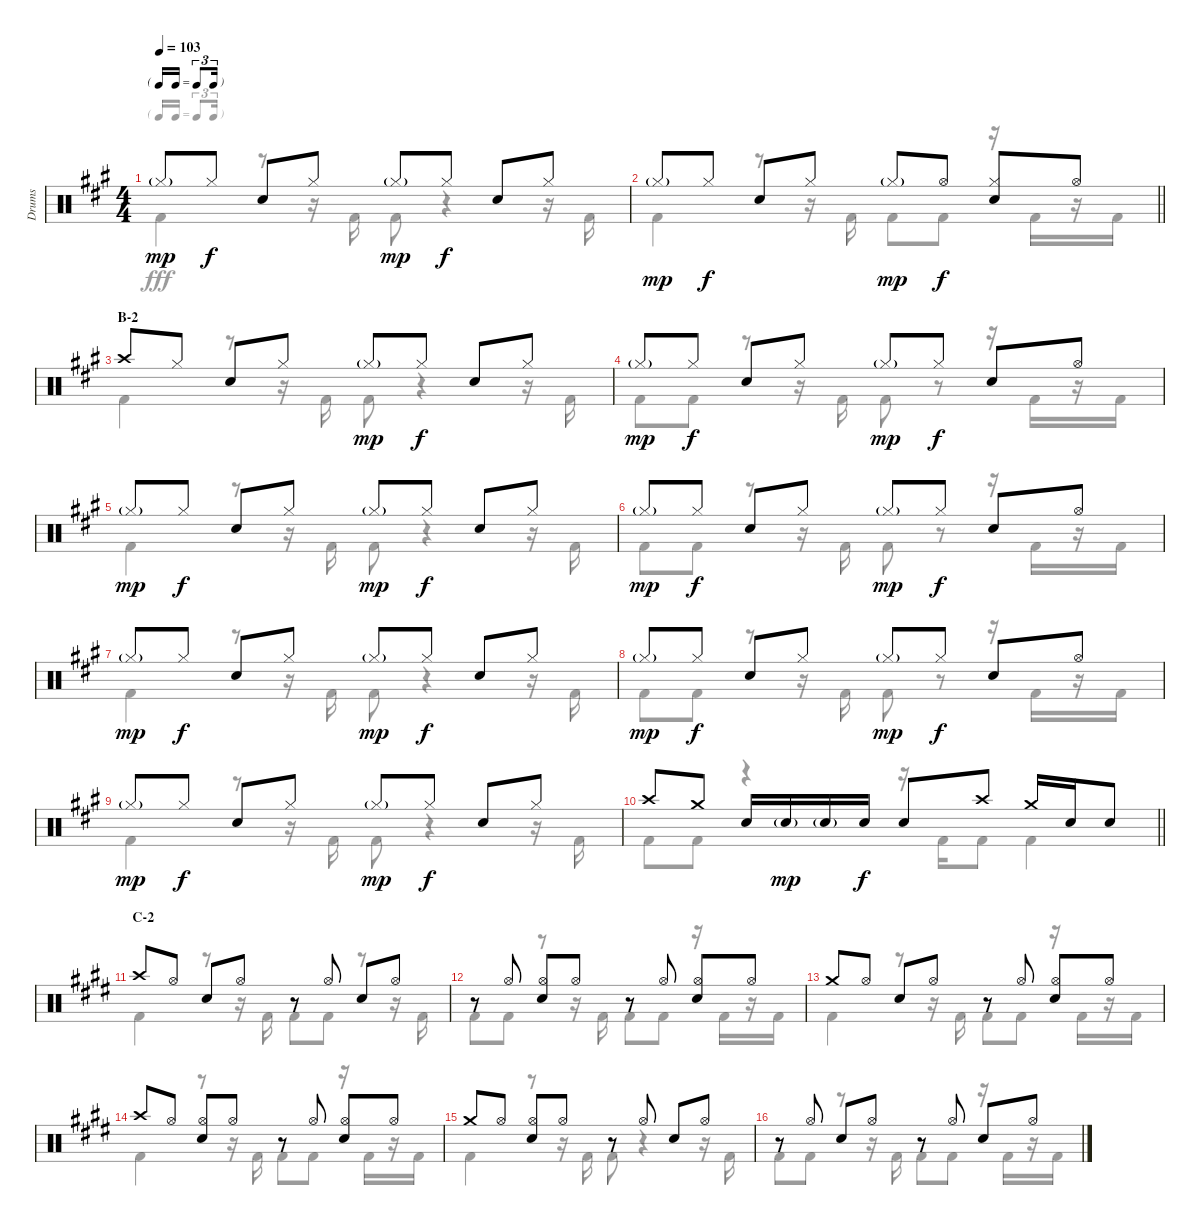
\track ("Drums" "Drums") {instrument percussion}
\staff {score}
\articulation defaults
\voice
\ts (4 4)
\tf triplet16th
\tempo 103
\clef neutral
\ks a "Hi-Hat (closed)"{g}.8{dy mp} "Hi-Hat (closed)".8{dy f} "Snare (hit) 2".8 "Hi-Hat (closed)".8 "Hi-Hat (closed)"{g}.8{dy mp} "Hi-Hat (closed)".8{dy f} "Snare (hit) 2".8 "Hi-Hat (closed)".8
|
\barLineRight lightlight "Hi-Hat (closed)"{g}.8{dy mp} "Hi-Hat (closed)".8{dy f} "Snare (hit) 2".8 "Hi-Hat (closed)".8 "Hi-Hat (closed)"{g}.8{dy mp} "Hi-Hat (open)".8{dy f}
("Hi-Hat (closed)" "Snare (hit) 2").8 "Hi-Hat (open)".8 |
\section ("" "B-2")
"Crash high (hit)".8 "Hi-Hat (closed)".8 "Snare (hit) 2".8 "Hi-Hat (closed)".8 "Hi-Hat (closed)"{g}.8{dy mp} "Hi-Hat (closed)".8{dy f} "Snare (hit) 2".8 "Hi-Hat (closed)".8 |
"Hi-Hat (closed)"{g}.8{dy mp} "Hi-Hat (closed)".8{dy f} "Snare (hit) 2".8 "Hi-Hat (closed)".8 "Hi-Hat (closed)"{g}.8{dy mp} "Hi-Hat (closed)".8{dy f} "Snare (hit) 2".8 "Hi-Hat (open)".8 |
"Hi-Hat (closed)"{g}.8{dy mp} "Hi-Hat (closed)".8{dy f} "Snare (hit) 2".8 "Hi-Hat (closed)".8 "Hi-Hat (closed)"{g}.8{dy mp} "Hi-Hat (closed)".8{dy f} "Snare (hit) 2".8 "Hi-Hat (closed)".8 |
"Hi-Hat (closed)"{g}.8{dy mp} "Hi-Hat (closed)".8{dy f} "Snare (hit) 2".8 "Hi-Hat (closed)".8 "Hi-Hat (closed)"{g}.8{dy mp} "Hi-Hat (closed)".8{dy f} "Snare (hit) 2".8 "Hi-Hat (open)".8 |
"Hi-Hat (closed)"{g}.8{dy mp} "Hi-Hat (closed)".8{dy f} "Snare (hit) 2".8 "Hi-Hat (closed)".8 "Hi-Hat (closed)"{g}.8{dy mp} "Hi-Hat (closed)".8{dy f} "Snare (hit) 2".8 "Hi-Hat (closed)".8 |
"Hi-Hat (closed)"{g}.8{dy mp} "Hi-Hat (closed)".8{dy f} "Snare (hit) 2".8 "Hi-Hat (closed)".8 "Hi-Hat (closed)"{g}.8{dy mp} "Hi-Hat (closed)".8{dy f} "Snare (hit) 2".8 "Hi-Hat (open)".8 |
"Hi-Hat (closed)"{g}.8{dy mp} "Hi-Hat (closed)".8{dy f} "Snare (hit) 2".8 "Hi-Hat (closed)".8 "Hi-Hat (closed)"{g}.8{dy mp} "Hi-Hat (closed)".8{dy f} "Snare (hit) 2".8 "Hi-Hat (closed)".8 |
\barLineRight lightlight "Crash high (hit)".8 "Crash medium (hit)".8 "Snare (hit) 2".16 "Snare (hit) 2"{g}.16{dy mp} "Snare (hit) 2"{g}.16 "Snare (hit) 2".16{dy f} "Snare (hit) 2".8 "Crash high (hit)".8 "Crash medium (hit)".16 "Snare (hit) 2".16 "Snare (hit) 2".8
|
\section ("" "C-2")
\ks e "Crash high (hit)".8 "Hi-Hat (open)".8 "Snare (hit) 2".8 "Hi-Hat (open)".8
r.8 "Hi-Hat (open)".8 "Snare (hit) 2".8 "Hi-Hat (open)".8 |
r.8 "Hi-Hat (open)".8 ("Hi-Hat (open)" "Snare (hit) 2").8 "Hi-Hat (open)".8 r.8 "Hi-Hat (open)".8 ("Hi-Hat (open)" "Snare (hit) 2").8 "Hi-Hat (open)".8 |
"Crash medium (hit)".8 "Hi-Hat (open)".8 "Snare (hit) 2".8 "Hi-Hat (open)".8 r.8 "Hi-Hat (open)".8 ("Hi-Hat (open)" "Snare (hit) 2").8 "Hi-Hat (open)".8 |
"Crash high (hit)".8 "Hi-Hat (open)".8 ("Hi-Hat (open)" "Snare (hit) 2").8 "Hi-Hat (open)".8 r.8 "Hi-Hat (open)".8 ("Hi-Hat (open)" "Snare (hit) 2").8 "Hi-Hat (open)".8 |
"Crash medium (hit)".8 "Hi-Hat (open)".8 ("Hi-Hat (open)" "Snare (hit) 2").8 "Hi-Hat (open)".8 r.8 "Hi-Hat (open)".8 "Snare (hit) 2".8 "Hi-Hat (open)".8 |
r.8 "Hi-Hat (open)".8 "Snare (hit) 2".8 "Hi-Hat (open)".8 r.8 "Hi-Hat (open)".8 "Snare (hit) 2".8 "Hi-Hat (open)".8
\voice
\clef neutral
\ottava regular
\simile none
\ks a "Kick (hit) 2".4{dy fff}
r.8 r.16 "Kick (hit) 2".16 "Kick (hit) 2".8 r.4 r.16 "Kick (hit) 2".16 |
\barLineRight lightlight "Kick (hit) 2".4
r.8 r.16 "Kick (hit) 2".16 "Kick (hit) 2".8 "Kick (hit) 2".8 r.16 "Kick (hit) 2".16 r.16 "Kick (hit) 2".16 |
"Kick (hit) 2".4 r.8 r.16 "Kick (hit) 2".16 "Kick (hit) 2".8 r.4 r.16 "Kick (hit) 2".16 |
"Kick (hit) 2".8 "Kick (hit) 2".8 r.8 r.16 "Kick (hit) 2".16 "Kick (hit) 2".8 r.8 r.16 "Kick (hit) 2".16 r.16 "Kick (hit) 2".16 |
"Kick (hit) 2".4 r.8 r.16 "Kick (hit) 2".16 "Kick (hit) 2".8 r.4 r.16 "Kick (hit) 2".16 |
"Kick (hit) 2".8 "Kick (hit) 2".8 r.8 r.16 "Kick (hit) 2".16 "Kick (hit) 2".8 r.8 r.16 "Kick (hit) 2".16 r.16 "Kick (hit) 2".16 |
"Kick (hit) 2".4 r.8 r.16 "Kick (hit) 2".16 "Kick (hit) 2".8 r.4 r.16 "Kick (hit) 2".16 |
"Kick (hit) 2".8 "Kick (hit) 2".8 r.8 r.16 "Kick (hit) 2".16 "Kick (hit) 2".8 r.8 r.16 "Kick (hit) 2".16 r.16 "Kick (hit) 2".16 |
"Kick (hit) 2".4 r.8 r.16 "Kick (hit) 2".16 "Kick (hit) 2".8 r.4 r.16 "Kick (hit) 2".16 |
\barLineRight lightlight "Kick (hit) 2".8 "Kick (hit) 2".8
r.4 r.16 "Kick (hit) 2".16 "Kick (hit) 2".8 "Kick (hit) 2".4 |
\ks e "Kick (hit) 2".4
r.8 r.16 "Kick (hit) 2".16 "Kick (hit) 2".8 "Kick (hit) 2".8 r.8 r.16 "Kick (hit) 2".16 |
"Kick (hit) 2".8 "Kick (hit) 2".8 r.8 r.16 "Kick (hit) 2".16 "Kick (hit) 2".8 "Kick (hit) 2".8 r.16 "Kick (hit) 2".16 r.16 "Kick (hit) 2".16 |
"Kick (hit) 2".4 r.8 r.16 "Kick (hit) 2".16 "Kick (hit) 2".8 "Kick (hit) 2".8 r.16 "Kick (hit) 2".16 r.16 "Kick (hit) 2".16 |
"Kick (hit) 2".4 r.8 r.16 "Kick (hit) 2".16 "Kick (hit) 2".8 "Kick (hit) 2".8 r.16 "Kick (hit) 2".16 r.16 "Kick (hit) 2".16 |
"Kick (hit) 2".4 r.8 r.16 "Kick (hit) 2".16 "Kick (hit) 2".8 r.4 r.16 "Kick (hit) 2".16 |
"Kick (hit) 2".8 "Kick (hit) 2".8 r.8 r.16 "Kick (hit) 2".16 "Kick (hit) 2".8 "Kick (hit) 2".8 r.16 "Kick (hit) 2".16 r.16 "Kick (hit) 2".16
